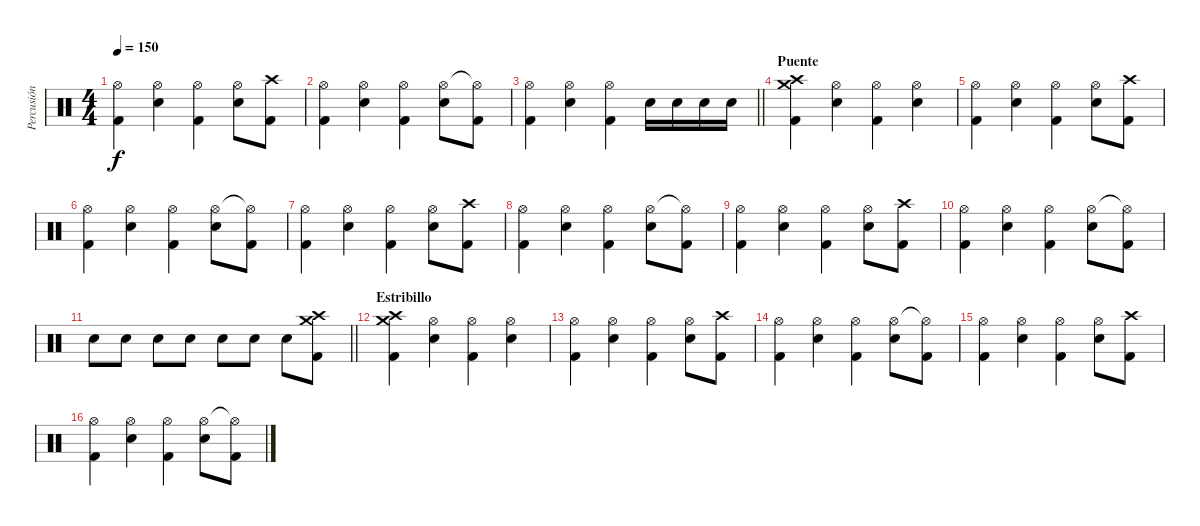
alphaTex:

\track ("Percusión" "Percusión") {instrument percussion}
\staff {score}
\articulation defaults
\ts (4 4)
\tempo 150
\clef neutral
\ks c
("Kick (hit) 2" "Hi-Hat (open)").4{dy f} ("Electric Snare (hit)" "Hi-Hat (open)").4 ("Kick (hit) 2" "Hi-Hat (open)").4 ("Electric Snare (hit)" "Hi-Hat (open)").8 ("Kick (hit) 2" "Crash high (hit)").8 |
("Kick (hit) 2" "Hi-Hat (open)").4 ("Electric Snare (hit)" "Hi-Hat (open)").4 ("Kick (hit) 2" "Hi-Hat (open)").4 ("Electric Snare (hit)" "Hi-Hat (open)").8 ("Kick (hit) 2" "Hi-Hat (open)"{t}).8 |
\barLineRight lightlight
("Kick (hit) 2" "Hi-Hat (open)").4 ("Electric Snare (hit)" "Hi-Hat (open)").4 ("Kick (hit) 2" "Hi-Hat (open)").4 "Electric Snare (hit)".16 "Electric Snare (hit)".16 "Electric Snare (hit)".16 "Electric Snare (hit)".16 |
\section ("" "Puente")
("Kick (hit) 2" "Crash high (hit)" "Crash medium (hit)").4 ("Electric Snare (hit)" "Hi-Hat (open)").4 ("Kick (hit) 2" "Hi-Hat (open)").4 ("Electric Snare (hit)" "Hi-Hat (open)").4 |
("Kick (hit) 2" "Hi-Hat (open)").4 ("Electric Snare (hit)" "Hi-Hat (open)").4 ("Kick (hit) 2" "Hi-Hat (open)").4 ("Electric Snare (hit)" "Hi-Hat (open)").8 ("Kick (hit) 2" "Crash high (hit)").8 |
("Kick (hit) 2" "Hi-Hat (open)").4 ("Electric Snare (hit)" "Hi-Hat (open)").4 ("Kick (hit) 2" "Hi-Hat (open)").4 ("Electric Snare (hit)" "Hi-Hat (open)").8 ("Kick (hit) 2" "Hi-Hat (open)"{t}).8 |
("Kick (hit) 2" "Hi-Hat (open)").4 ("Electric Snare (hit)" "Hi-Hat (open)").4 ("Kick (hit) 2" "Hi-Hat (open)").4 ("Electric Snare (hit)" "Hi-Hat (open)").8 ("Kick (hit) 2" "Crash high (hit)").8 |
("Kick (hit) 2" "Hi-Hat (open)").4 ("Electric Snare (hit)" "Hi-Hat (open)").4 ("Kick (hit) 2" "Hi-Hat (open)").4 ("Electric Snare (hit)" "Hi-Hat (open)").8 ("Kick (hit) 2" "Hi-Hat (open)"{t}).8 |
("Kick (hit) 2" "Hi-Hat (open)").4 ("Electric Snare (hit)" "Hi-Hat (open)").4 ("Kick (hit) 2" "Hi-Hat (open)").4 ("Electric Snare (hit)" "Hi-Hat (open)").8 ("Kick (hit) 2" "Crash high (hit)").8 |
("Kick (hit) 2" "Hi-Hat (open)").4 ("Electric Snare (hit)" "Hi-Hat (open)").4 ("Kick (hit) 2" "Hi-Hat (open)").4 ("Electric Snare (hit)" "Hi-Hat (open)").8 ("Kick (hit) 2" "Hi-Hat (open)"{t}).8 |
\barLineRight lightlight "Electric Snare (hit)".8 "Electric Snare (hit)".8 "Electric Snare (hit)".8 "Electric Snare (hit)".8 "Electric Snare (hit)".8 "Electric Snare (hit)".8 "Electric Snare (hit)".8
("Kick (hit) 2" "Crash high (hit)" "Crash medium (hit)").8 |
\section ("" "Estribillo")
("Kick (hit) 2" "Crash high (hit)" "Crash medium (hit)").4 ("Electric Snare (hit)" "Hi-Hat (open)").4 ("Kick (hit) 2" "Hi-Hat (open)").4 ("Electric Snare (hit)" "Hi-Hat (open)").4 |
("Kick (hit) 2" "Hi-Hat (open)").4 ("Electric Snare (hit)" "Hi-Hat (open)").4 ("Kick (hit) 2" "Hi-Hat (open)").4 ("Electric Snare (hit)" "Hi-Hat (open)").8 ("Kick (hit) 2" "Crash high (hit)").8 |
("Kick (hit) 2" "Hi-Hat (open)").4 ("Electric Snare (hit)" "Hi-Hat (open)").4 ("Kick (hit) 2" "Hi-Hat (open)").4 ("Electric Snare (hit)" "Hi-Hat (open)").8 ("Kick (hit) 2" "Hi-Hat (open)"{t}).8 |
("Kick (hit) 2" "Hi-Hat (open)").4 ("Electric Snare (hit)" "Hi-Hat (open)").4 ("Kick (hit) 2" "Hi-Hat (open)").4 ("Electric Snare (hit)" "Hi-Hat (open)").8 ("Kick (hit) 2" "Crash high (hit)").8 |
("Kick (hit) 2" "Hi-Hat (open)").4 ("Electric Snare (hit)" "Hi-Hat (open)").4 ("Kick (hit) 2" "Hi-Hat (open)").4 ("Electric Snare (hit)" "Hi-Hat (open)").8 ("Kick (hit) 2" "Hi-Hat (open)"{t}).8
